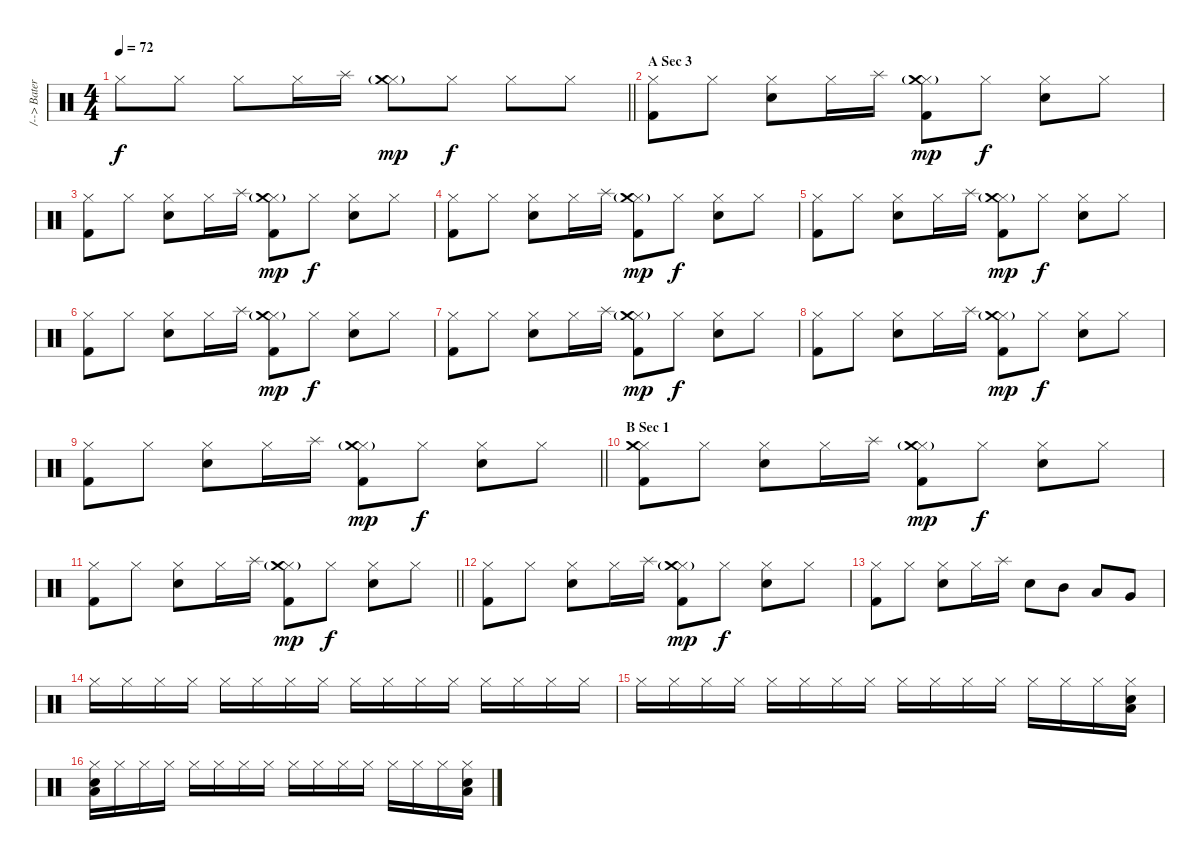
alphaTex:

\track ("/--> Bateria <---/" "/--> Bater") {instrument percussion}
\staff {score}
\articulation defaults
\ts (4 4)
\tempo 72
\clef neutral
\barLineRight lightlight
\ks c "Hi-Hat (closed)".8{dy f} "Hi-Hat (closed)".8 "Hi-Hat (closed)".8 "Hi-Hat (closed)".16 "Splash (hit)".16
("Hi-Hat (closed)" "Crash medium (hit)"{g}).8{dy mp} "Hi-Hat (closed)".8{dy f} "Hi-Hat (closed)".8 "Hi-Hat (closed)".8 |
\section ("" "A Sec 3")
("Hi-Hat (closed)" "Kick (hit) 2").8 "Hi-Hat (closed)".8 ("Hi-Hat (closed)" "Electric Snare (hit)").8 "Hi-Hat (closed)".16 "Splash (hit)".16 ("Hi-Hat (closed)" "Crash medium (hit)"{g} "Kick (hit) 2").8{dy mp} "Hi-Hat (closed)".8{dy f} ("Hi-Hat (closed)" "Electric Snare (hit)").8 "Hi-Hat (closed)".8 |
("Hi-Hat (closed)" "Kick (hit) 2").8 "Hi-Hat (closed)".8 ("Hi-Hat (closed)" "Electric Snare (hit)").8 "Hi-Hat (closed)".16 "Splash (hit)".16 ("Hi-Hat (closed)" "Crash medium (hit)"{g} "Kick (hit) 2").8{dy mp} "Hi-Hat (closed)".8{dy f} ("Hi-Hat (closed)" "Electric Snare (hit)").8 "Hi-Hat (closed)".8 |
("Hi-Hat (closed)" "Kick (hit) 2").8 "Hi-Hat (closed)".8 ("Hi-Hat (closed)" "Electric Snare (hit)").8 "Hi-Hat (closed)".16 "Splash (hit)".16 ("Hi-Hat (closed)" "Crash medium (hit)"{g} "Kick (hit) 2").8{dy mp} "Hi-Hat (closed)".8{dy f} ("Hi-Hat (closed)" "Electric Snare (hit)").8 "Hi-Hat (closed)".8 |
("Hi-Hat (closed)" "Kick (hit) 2").8 "Hi-Hat (closed)".8 ("Hi-Hat (closed)" "Electric Snare (hit)").8{txt ""} "Hi-Hat (closed)".16 "Splash (hit)".16 ("Hi-Hat (closed)" "Crash medium (hit)"{g} "Kick (hit) 2").8{dy mp} "Hi-Hat (closed)".8{dy f} ("Hi-Hat (closed)" "Electric Snare (hit)").8 "Hi-Hat (closed)".8 |
("Hi-Hat (closed)" "Kick (hit) 2").8 "Hi-Hat (closed)".8 ("Hi-Hat (closed)" "Electric Snare (hit)").8 "Hi-Hat (closed)".16 "Splash (hit)".16 ("Hi-Hat (closed)" "Crash medium (hit)"{g} "Kick (hit) 2").8{dy mp} "Hi-Hat (closed)".8{dy f} ("Hi-Hat (closed)" "Electric Snare (hit)").8 "Hi-Hat (closed)".8 |
("Hi-Hat (closed)" "Kick (hit) 2").8 "Hi-Hat (closed)".8 ("Hi-Hat (closed)" "Electric Snare (hit)").8 "Hi-Hat (closed)".16 "Splash (hit)".16 ("Hi-Hat (closed)" "Crash medium (hit)"{g} "Kick (hit) 2").8{dy mp} "Hi-Hat (closed)".8{dy f} ("Hi-Hat (closed)" "Electric Snare (hit)").8 "Hi-Hat (closed)".8 |
("Hi-Hat (closed)" "Kick (hit) 2").8 "Hi-Hat (closed)".8 ("Hi-Hat (closed)" "Electric Snare (hit)").8 "Hi-Hat (closed)".16 "Splash (hit)".16 ("Hi-Hat (closed)" "Crash medium (hit)"{g} "Kick (hit) 2").8{dy mp} "Hi-Hat (closed)".8{dy f} ("Hi-Hat (closed)" "Electric Snare (hit)").8 "Hi-Hat (closed)".8 |
\barLineRight lightlight
("Hi-Hat (closed)" "Kick (hit) 2").8 "Hi-Hat (closed)".8 ("Hi-Hat (closed)" "Electric Snare (hit)").8 "Hi-Hat (closed)".16 "Splash (hit)".16 ("Hi-Hat (closed)" "Crash medium (hit)"{g} "Kick (hit) 2").8{dy mp} "Hi-Hat (closed)".8{dy f} ("Hi-Hat (closed)" "Electric Snare (hit)").8 "Hi-Hat (closed)".8 |
\section ("" "B Sec 1")
("Hi-Hat (closed)" "Crash medium (hit)" "Kick (hit) 2").8 "Hi-Hat (closed)".8 ("Hi-Hat (closed)" "Electric Snare (hit)").8 "Hi-Hat (closed)".16 "Splash (hit)".16 ("Hi-Hat (closed)" "Crash medium (hit)"{g} "Kick (hit) 2").8{dy mp} "Hi-Hat (closed)".8{dy f} ("Hi-Hat (closed)" "Electric Snare (hit)").8 "Hi-Hat (closed)".8 |
\barLineRight lightlight
("Hi-Hat (closed)" "Kick (hit) 2").8 "Hi-Hat (closed)".8 ("Hi-Hat (closed)" "Electric Snare (hit)").8 "Hi-Hat (closed)".16 "Splash (hit)".16 ("Hi-Hat (closed)" "Crash medium (hit)"{g} "Kick (hit) 2").8{dy mp} "Hi-Hat (closed)".8{dy f} ("Hi-Hat (closed)" "Electric Snare (hit)").8 "Hi-Hat (closed)".8 |
\section ("" "")
("Hi-Hat (closed)" "Kick (hit) 2").8 "Hi-Hat (closed)".8 ("Hi-Hat (closed)" "Electric Snare (hit)").8 "Hi-Hat (closed)".16 "Splash (hit)".16 ("Hi-Hat (closed)" "Crash medium (hit)"{g} "Kick (hit) 2").8{dy mp} "Hi-Hat (closed)".8{dy f} ("Hi-Hat (closed)" "Electric Snare (hit)").8 "Hi-Hat (closed)".8 |
("Hi-Hat (closed)" "Kick (hit) 2").8 "Hi-Hat (closed)".8 ("Hi-Hat (closed)" "Electric Snare (hit)").8 "Hi-Hat (closed)".16 "Splash (hit)".16 "Electric Snare (hit)".8 "Mid Tom (hit)".8 "Low Tom (hit)".8 "Very Low Tom (hit)".8 |
"Hi-Hat (closed)".16 "Hi-Hat (closed)".16 "Hi-Hat (closed)".16 "Hi-Hat (closed)".16 "Hi-Hat (closed)".16 "Hi-Hat (closed)".16 "Hi-Hat (closed)".16 "Hi-Hat (closed)".16 "Hi-Hat (closed)".16 "Hi-Hat (closed)".16 "Hi-Hat (closed)".16 "Hi-Hat (closed)".16 "Hi-Hat (closed)".16 "Hi-Hat (closed)".16 "Hi-Hat (closed)".16 "Hi-Hat (closed)".16 |
"Hi-Hat (closed)".16 "Hi-Hat (closed)".16 "Hi-Hat (closed)".16 "Hi-Hat (closed)".16 "Hi-Hat (closed)".16 "Hi-Hat (closed)".16 "Hi-Hat (closed)".16 "Hi-Hat (closed)".16 "Hi-Hat (closed)".16 "Hi-Hat (closed)".16 "Hi-Hat (closed)".16 "Hi-Hat (closed)".16 "Hi-Hat (closed)".16 "Hi-Hat (closed)".16 "Hi-Hat (closed)".16 ("Hi-Hat (closed)" "Snare (hit) 2" "Low Tom (hit)").16 |
("Hi-Hat (closed)" "Snare (hit) 2" "Low Tom (hit)").16 "Hi-Hat (closed)".16 "Hi-Hat (closed)".16 "Hi-Hat (closed)".16 "Hi-Hat (closed)".16 "Hi-Hat (closed)".16 "Hi-Hat (closed)".16 "Hi-Hat (closed)".16 "Hi-Hat (closed)".16 "Hi-Hat (closed)".16 "Hi-Hat (closed)".16 "Hi-Hat (closed)".16 "Hi-Hat (closed)".16 "Hi-Hat (closed)".16 "Hi-Hat (closed)".16 ("Hi-Hat (closed)" "Snare (hit) 2" "Low Tom (hit)").16
